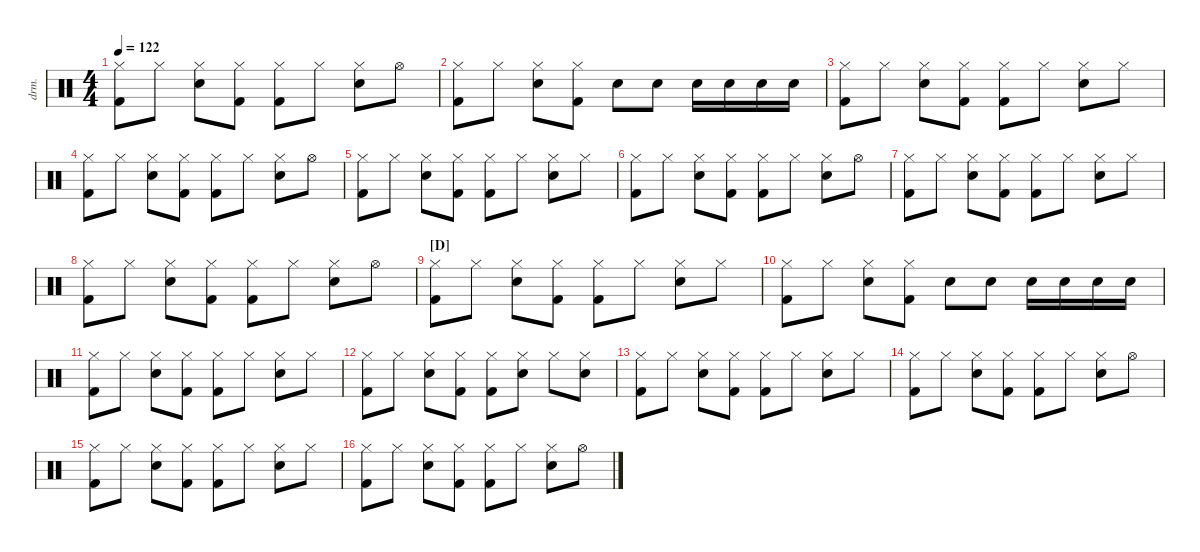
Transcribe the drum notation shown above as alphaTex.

\defaultSystemsLayout 4
\hideDynamics
\bracketExtendMode nobrackets
\track ("Drumkit" "drm.") {defaultSystemsLayout 4 instrument percussion}
\staff {score}
\articulation defaults
\ts (4 4)
\tempo 122
\clef neutral
\ks c
("Hi-Hat (closed)" "Kick (hit) 2").8{dy f beam Down} "Hi-Hat (closed)".8{beam Down} ("Hi-Hat (closed)" "Snare (hit) 2").8{beam Down} ("Hi-Hat (closed)" "Kick (hit) 2").8{beam Down} ("Hi-Hat (closed)" "Kick (hit) 2").8{beam Down} "Hi-Hat (closed)".8{beam Down} ("Hi-Hat (closed)" "Snare (hit) 2").8{beam Down} "Hi-Hat (open)".8{beam Down} |
("Hi-Hat (closed)" "Kick (hit) 2").8{beam Down} "Hi-Hat (closed)".8{beam Down} ("Hi-Hat (closed)" "Snare (hit) 2").8{beam Down} ("Hi-Hat (closed)" "Kick (hit) 2").8{beam Down} "Snare (hit) 2".8{beam Down} "Snare (hit) 2".8{beam Down} "Snare (hit) 2".16{beam Down} "Snare (hit) 2".16{beam Down} "Snare (hit) 2".16{beam Down} "Snare (hit) 2".16{beam Down} |
("Hi-Hat (closed)" "Kick (hit) 2").8{beam Down} "Hi-Hat (closed)".8{beam Down} ("Hi-Hat (closed)" "Snare (hit) 2").8{beam Down} ("Hi-Hat (closed)" "Kick (hit) 2").8{beam Down} ("Hi-Hat (closed)" "Kick (hit) 2").8{beam Down} "Hi-Hat (closed)".8{beam Down} ("Hi-Hat (closed)" "Snare (hit) 2").8{beam Down} "Hi-Hat (closed)".8{beam Down} |
("Hi-Hat (closed)" "Kick (hit) 2").8{beam Down} "Hi-Hat (closed)".8{beam Down} ("Hi-Hat (closed)" "Snare (hit) 2").8{beam Down} ("Hi-Hat (closed)" "Kick (hit) 2").8{beam Down} ("Hi-Hat (closed)" "Kick (hit) 2").8{beam Down} "Hi-Hat (closed)".8{beam Down} ("Hi-Hat (closed)" "Snare (hit) 2").8{beam Down} "Hi-Hat (open)".8{beam Down} |
("Hi-Hat (closed)" "Kick (hit) 2").8{beam Down} "Hi-Hat (closed)".8{beam Down} ("Hi-Hat (closed)" "Snare (hit) 2").8{beam Down} ("Hi-Hat (closed)" "Kick (hit) 2").8{beam Down} ("Hi-Hat (closed)" "Kick (hit) 2").8{beam Down} "Hi-Hat (closed)".8{beam Down} ("Hi-Hat (closed)" "Snare (hit) 2").8{beam Down} "Hi-Hat (closed)".8{beam Down} |
("Hi-Hat (closed)" "Kick (hit) 2").8{beam Down} "Hi-Hat (closed)".8{beam Down} ("Hi-Hat (closed)" "Snare (hit) 2").8{beam Down} ("Hi-Hat (closed)" "Kick (hit) 2").8{beam Down} ("Hi-Hat (closed)" "Kick (hit) 2").8{beam Down} "Hi-Hat (closed)".8{beam Down} ("Hi-Hat (closed)" "Snare (hit) 2").8{beam Down} "Hi-Hat (open)".8{beam Down} |
("Hi-Hat (closed)" "Kick (hit) 2").8{beam Down} "Hi-Hat (closed)".8{beam Down} ("Hi-Hat (closed)" "Snare (hit) 2").8{beam Down} ("Hi-Hat (closed)" "Kick (hit) 2").8{beam Down} ("Hi-Hat (closed)" "Kick (hit) 2").8{beam Down} "Hi-Hat (closed)".8{beam Down} ("Hi-Hat (closed)" "Snare (hit) 2").8{beam Down} "Hi-Hat (closed)".8{beam Down} |
("Hi-Hat (closed)" "Kick (hit) 2").8{beam Down} "Hi-Hat (closed)".8{beam Down} ("Hi-Hat (closed)" "Snare (hit) 2").8{beam Down} ("Hi-Hat (closed)" "Kick (hit) 2").8{beam Down} ("Hi-Hat (closed)" "Kick (hit) 2").8{beam Down} "Hi-Hat (closed)".8{beam Down} ("Hi-Hat (closed)" "Snare (hit) 2").8{beam Down} "Hi-Hat (open)".8{beam Down} |
\section ("D" "")
("Hi-Hat (closed)" "Kick (hit) 2").8{beam Down} "Hi-Hat (closed)".8{beam Down} ("Hi-Hat (closed)" "Snare (hit) 2").8{beam Down} ("Hi-Hat (closed)" "Kick (hit) 2").8{beam Down} ("Hi-Hat (closed)" "Kick (hit) 2").8{beam Down} "Hi-Hat (closed)".8{beam Down} ("Hi-Hat (closed)" "Snare (hit) 2").8{beam Down} "Hi-Hat (closed)".8{beam Down} |
("Hi-Hat (closed)" "Kick (hit) 2").8{beam Down} "Hi-Hat (closed)".8{beam Down} ("Hi-Hat (closed)" "Snare (hit) 2").8{beam Down} ("Hi-Hat (closed)" "Kick (hit) 2").8{beam Down} "Snare (hit) 2".8{beam Down} "Snare (hit) 2".8{beam Down} "Snare (hit) 2".16{beam Down} "Snare (hit) 2".16{beam Down} "Snare (hit) 2".16{beam Down} "Snare (hit) 2".16{beam Down} |
("Hi-Hat (closed)" "Kick (hit) 2").8{beam Down} "Hi-Hat (closed)".8{beam Down} ("Hi-Hat (closed)" "Snare (hit) 2").8{beam Down} ("Hi-Hat (closed)" "Kick (hit) 2").8{beam Down} ("Hi-Hat (closed)" "Kick (hit) 2").8{beam Down} "Hi-Hat (closed)".8{beam Down} ("Hi-Hat (closed)" "Snare (hit) 2").8{beam Down} "Hi-Hat (closed)".8{beam Down} |
("Hi-Hat (closed)" "Kick (hit) 2").8{beam Down} "Hi-Hat (closed)".8{beam Down} ("Hi-Hat (closed)" "Snare (hit) 2").8{beam Down} ("Hi-Hat (closed)" "Kick (hit) 2").8{beam Down} ("Hi-Hat (closed)" "Kick (hit) 2").8{beam Down} ("Hi-Hat (closed)" "Snare (hit) 2").8{beam Down} "Hi-Hat (closed)".8{beam Down} ("Hi-Hat (closed)" "Snare (hit) 2").8{beam Down} |
("Hi-Hat (closed)" "Kick (hit) 2").8{beam Down} "Hi-Hat (closed)".8{beam Down} ("Hi-Hat (closed)" "Snare (hit) 2").8{beam Down} ("Hi-Hat (closed)" "Kick (hit) 2").8{beam Down} ("Hi-Hat (closed)" "Kick (hit) 2").8{beam Down} "Hi-Hat (closed)".8{beam Down} ("Hi-Hat (closed)" "Snare (hit) 2").8{beam Down} "Hi-Hat (closed)".8{beam Down} |
("Hi-Hat (closed)" "Kick (hit) 2").8{beam Down} "Hi-Hat (closed)".8{beam Down} ("Hi-Hat (closed)" "Snare (hit) 2").8{beam Down} ("Hi-Hat (closed)" "Kick (hit) 2").8{beam Down} ("Hi-Hat (closed)" "Kick (hit) 2").8{beam Down} "Hi-Hat (closed)".8{beam Down} ("Hi-Hat (closed)" "Snare (hit) 2").8{beam Down} "Hi-Hat (open)".8{beam Down} |
("Hi-Hat (closed)" "Kick (hit) 2").8{beam Down} "Hi-Hat (closed)".8{beam Down} ("Hi-Hat (closed)" "Snare (hit) 2").8{beam Down} ("Hi-Hat (closed)" "Kick (hit) 2").8{beam Down} ("Hi-Hat (closed)" "Kick (hit) 2").8{beam Down} "Hi-Hat (closed)".8{beam Down} ("Hi-Hat (closed)" "Snare (hit) 2").8{beam Down} "Hi-Hat (closed)".8{beam Down} |
("Hi-Hat (closed)" "Kick (hit) 2").8{beam Down} "Hi-Hat (closed)".8{beam Down} ("Hi-Hat (closed)" "Snare (hit) 2").8{beam Down} ("Hi-Hat (closed)" "Kick (hit) 2").8{beam Down} ("Hi-Hat (closed)" "Kick (hit) 2").8{beam Down} "Hi-Hat (closed)".8{beam Down} ("Hi-Hat (closed)" "Snare (hit) 2").8{beam Down} "Hi-Hat (open)".8{beam Down}
